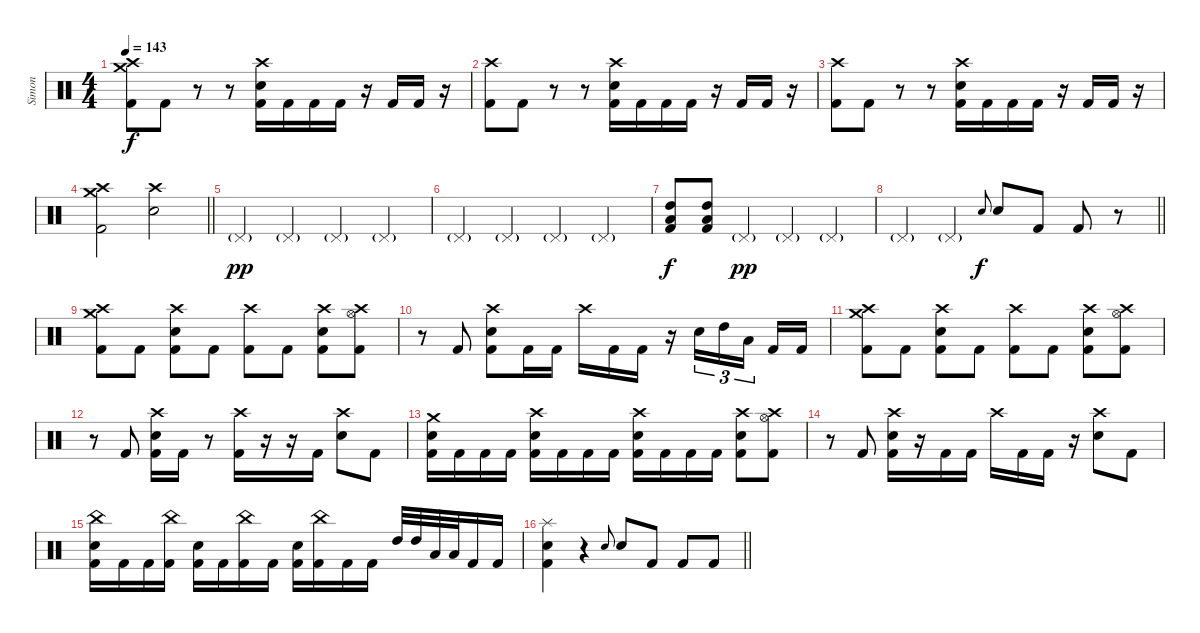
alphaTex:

\track ("Simon" "Simon") {instrument percussion}
\staff {score}
\articulation defaults
\ts (4 4)
\tempo 143
\clef neutral
\ks c
("Crash high (hit)" "Crash medium (hit)" "Kick (hit) 2").8{dy f} "Kick (hit) 2".8 r.8 r.8 ("Crash high (hit)" "Electric Snare (hit)" "Kick (hit) 2").16 "Kick (hit) 2".16 "Kick (hit) 2".16 "Kick (hit) 2".16 r.16 "Kick (hit) 2".16 "Kick (hit) 2".16 r.16 |
("Crash high (hit)" "Kick (hit) 2").8 "Kick (hit) 2".8 r.8 r.8 ("Crash high (hit)" "Electric Snare (hit)" "Kick (hit) 2").16 "Kick (hit) 2".16 "Kick (hit) 2".16 "Kick (hit) 2".16 r.16 "Kick (hit) 2".16 "Kick (hit) 2".16 r.16 |
("Crash high (hit)" "Kick (hit) 2").8 "Kick (hit) 2".8 r.8 r.8 ("Crash high (hit)" "Electric Snare (hit)" "Kick (hit) 2").16 "Kick (hit) 2".16 "Kick (hit) 2".16 "Kick (hit) 2".16 r.16 "Kick (hit) 2".16 "Kick (hit) 2".16 r.16 |
\barLineRight lightlight
("Crash high (hit)" "Crash medium (hit)" "Kick (hit) 2").2 ("Crash high (hit)" "Electric Snare (hit)").2 |
\section ("" "")
"Pedal Hi-Hat (hit)"{g}.4{dy pp} "Pedal Hi-Hat (hit)"{g}.4 "Pedal Hi-Hat (hit)"{g}.4 "Pedal Hi-Hat (hit)"{g}.4 |
"Pedal Hi-Hat (hit)"{g}.4 "Pedal Hi-Hat (hit)"{g}.4 "Pedal Hi-Hat (hit)"{g}.4 "Pedal Hi-Hat (hit)"{g}.4 |
("High Tom (hit)" "Low Tom (hit)" "Kick (hit) 2").8{dy f} ("High Tom (hit)" "Low Tom (hit)" "Kick (hit) 2").8 "Pedal Hi-Hat (hit)"{g}.4{dy pp} "Pedal Hi-Hat (hit)"{g}.4 "Pedal Hi-Hat (hit)"{g}.4 |
\barLineRight lightlight "Pedal Hi-Hat (hit)"{g}.4 "Pedal Hi-Hat (hit)"{g}.4 "Electric Snare (hit)".8{gr onbeat dy f} "Electric Snare (hit)".8 "Kick (hit) 2".8 "Kick (hit) 2".8
r.8 |
\section ("" "")
("Crash high (hit)" "Crash medium (hit)" "Kick (hit) 2").8 "Kick (hit) 2".8 ("Crash high (hit)" "Electric Snare (hit)" "Kick (hit) 2").8 "Kick (hit) 2".8 ("Crash high (hit)" "Kick (hit) 2").8 "Kick (hit) 2".8 ("Crash high (hit)" "Electric Snare (hit)" "Kick (hit) 2").8 ("Crash high (hit)" "Hi-Hat (open)" "Kick (hit) 2").8 |
r.8 "Kick (hit) 2".8 ("Crash high (hit)" "Electric Snare (hit)" "Kick (hit) 2").8 "Kick (hit) 2".16 "Kick (hit) 2".16 "Crash high (hit)".16 "Kick (hit) 2".16 "Kick (hit) 2".16 r.16 "Electric Snare (hit)".16{tu (3 2)} "High Tom (hit)".16{tu (3 2)} "Low Tom (hit)".16{tu (3 2) beam splitsecondary} "Kick (hit) 2".16 "Kick (hit) 2".16 |
("Crash high (hit)" "Crash medium (hit)" "Kick (hit) 2").8 "Kick (hit) 2".8 ("Crash high (hit)" "Electric Snare (hit)" "Kick (hit) 2").8 "Kick (hit) 2".8 ("Crash high (hit)" "Kick (hit) 2").8 "Kick (hit) 2".8 ("Crash high (hit)" "Electric Snare (hit)" "Kick (hit) 2").8 ("Crash high (hit)" "Hi-Hat (open)" "Kick (hit) 2").8 |
r.8 "Kick (hit) 2".8 ("Crash high (hit)" "Electric Snare (hit)" "Kick (hit) 2").16 "Kick (hit) 2".16 r.8 ("Crash high (hit)" "Kick (hit) 2").16 r.16 r.16 "Kick (hit) 2".16 ("Crash high (hit)" "Electric Snare (hit)").8 "Kick (hit) 2".8 |
("Crash medium (hit)" "Electric Snare (hit)" "Kick (hit) 2").16 "Kick (hit) 2".16 "Kick (hit) 2".16 "Kick (hit) 2".16 ("Crash high (hit)" "Electric Snare (hit)" "Kick (hit) 2").16 "Kick (hit) 2".16 "Kick (hit) 2".16 "Kick (hit) 2".16 ("Crash high (hit)" "Electric Snare (hit)" "Kick (hit) 2").16 "Kick (hit) 2".16 "Kick (hit) 2".16 "Kick (hit) 2".16 ("Crash high (hit)" "Electric Snare (hit)" "Kick (hit) 2").8 ("Crash high (hit)" "Hi-Hat (open)" "Kick (hit) 2").8 |
r.8 "Kick (hit) 2".8 ("Crash high (hit)" "Electric Snare (hit)" "Kick (hit) 2").16 r.16 "Kick (hit) 2".16 "Kick (hit) 2".16 "Crash high (hit)".16 "Kick (hit) 2".16 "Kick (hit) 2".16 r.16 ("Crash high (hit)" "Electric Snare (hit)").8 "Kick (hit) 2".8 |
("China (hit)" "Electric Snare (hit)" "Kick (hit) 2").16 "Kick (hit) 2".16 "Kick (hit) 2".16 ("China (hit)" "Kick (hit) 2").16 ("Electric Snare (hit)" "Kick (hit) 2").16 "Kick (hit) 2".16 ("China (hit)" "Kick (hit) 2").16 "Kick (hit) 2".16 ("Electric Snare (hit)" "Kick (hit) 2").16 ("China (hit)" "Kick (hit) 2").16 "Kick (hit) 2".16 "Kick (hit) 2".16 "High Tom (hit)".32 "High Tom (hit)".32 "Low Tom (hit)".32 "Low Tom (hit)".32 "Kick (hit) 2".16 "Kick (hit) 2".16 |
\barLineRight lightlight
("Splash (hit)" "Electric Snare (hit)" "Kick (hit) 2").4 r.4 "Electric Snare (hit)".8{gr onbeat} "Electric Snare (hit)".8 "Kick (hit) 2".8 "Kick (hit) 2".8 "Kick (hit) 2".8
